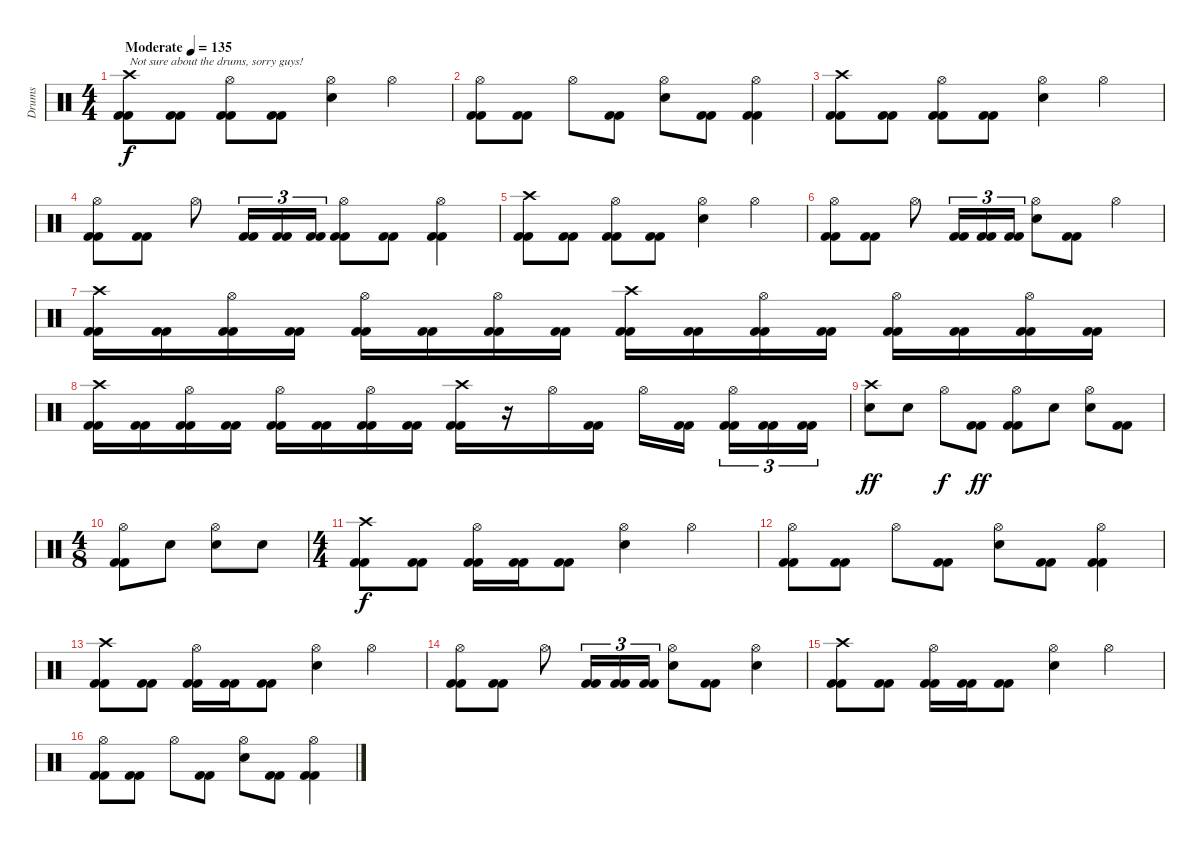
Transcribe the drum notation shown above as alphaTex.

\track ("Drums" "Drums") {instrument percussion}
\staff {score}
\articulation defaults
\ts (4 4)
\tempo (135 "Moderate")
\clef neutral
\ks c
("Crash high (hit)" "Kick (hit) 2" "Kick (hit) 2").8{txt "Not sure about the drums, sorry guys!" dy f} ("Kick (hit) 2" "Kick (hit) 2").8 ("Hi-Hat (open)" "Kick (hit) 2" "Kick (hit) 2").8 ("Kick (hit) 2" "Kick (hit) 2").8 ("Hi-Hat (open)" "Electric Snare (hit)").4 "Hi-Hat (open)".4 |
("Hi-Hat (open)" "Kick (hit) 2" "Kick (hit) 2").8 ("Kick (hit) 2" "Kick (hit) 2").8 "Hi-Hat (open)".8 ("Kick (hit) 2" "Kick (hit) 2").8 ("Hi-Hat (open)" "Electric Snare (hit)").8 ("Kick (hit) 2" "Kick (hit) 2").8 ("Hi-Hat (open)" "Kick (hit) 2" "Kick (hit) 2").4 |
("Crash high (hit)" "Kick (hit) 2" "Kick (hit) 2").8 ("Kick (hit) 2" "Kick (hit) 2").8 ("Hi-Hat (open)" "Kick (hit) 2" "Kick (hit) 2").8 ("Kick (hit) 2" "Kick (hit) 2").8 ("Hi-Hat (open)" "Electric Snare (hit)").4 "Hi-Hat (open)".4 |
("Hi-Hat (open)" "Kick (hit) 2" "Kick (hit) 2").8 ("Kick (hit) 2" "Kick (hit) 2").8 "Hi-Hat (open)".8 ("Kick (hit) 2" "Kick (hit) 2").16{tu (3 2)} ("Kick (hit) 2" "Kick (hit) 2").16{tu (3 2)} ("Kick (hit) 2" "Kick (hit) 2").16{tu (3 2)} ("Hi-Hat (open)" "Kick (hit) 2" "Kick (hit) 2").8 ("Kick (hit) 2" "Kick (hit) 2").8 ("Hi-Hat (open)" "Kick (hit) 2" "Kick (hit) 2").4 |
("Crash high (hit)" "Kick (hit) 2" "Kick (hit) 2").8 ("Kick (hit) 2" "Kick (hit) 2").8 ("Hi-Hat (open)" "Kick (hit) 2" "Kick (hit) 2").8 ("Kick (hit) 2" "Kick (hit) 2").8 ("Hi-Hat (open)" "Electric Snare (hit)").4 "Hi-Hat (open)".4 |
("Hi-Hat (open)" "Kick (hit) 2" "Kick (hit) 2").8 ("Kick (hit) 2" "Kick (hit) 2").8 "Hi-Hat (open)".8 ("Kick (hit) 2" "Kick (hit) 2").16{tu (3 2)} ("Kick (hit) 2" "Kick (hit) 2").16{tu (3 2)} ("Kick (hit) 2" "Kick (hit) 2").16{tu (3 2)} ("Hi-Hat (open)" "Electric Snare (hit)").8 ("Kick (hit) 2" "Kick (hit) 2").8 "Hi-Hat (open)".4 |
("Crash high (hit)" "Kick (hit) 2" "Kick (hit) 2").16 ("Kick (hit) 2" "Kick (hit) 2").16 ("Hi-Hat (open)" "Kick (hit) 2" "Kick (hit) 2").16 ("Kick (hit) 2" "Kick (hit) 2").16 ("Hi-Hat (open)" "Kick (hit) 2" "Kick (hit) 2").16 ("Kick (hit) 2" "Kick (hit) 2").16 ("Hi-Hat (open)" "Kick (hit) 2" "Kick (hit) 2").16 ("Kick (hit) 2" "Kick (hit) 2").16 ("Crash high (hit)" "Kick (hit) 2" "Kick (hit) 2").16 ("Kick (hit) 2" "Kick (hit) 2").16 ("Hi-Hat (open)" "Kick (hit) 2" "Kick (hit) 2").16 ("Kick (hit) 2" "Kick (hit) 2").16 ("Hi-Hat (open)" "Kick (hit) 2" "Kick (hit) 2").16 ("Kick (hit) 2" "Kick (hit) 2").16 ("Hi-Hat (open)" "Kick (hit) 2" "Kick (hit) 2").16 ("Kick (hit) 2" "Kick (hit) 2").16 |
("Crash high (hit)" "Kick (hit) 2" "Kick (hit) 2").16 ("Kick (hit) 2" "Kick (hit) 2").16 ("Hi-Hat (open)" "Kick (hit) 2" "Kick (hit) 2").16 ("Kick (hit) 2" "Kick (hit) 2").16 ("Hi-Hat (open)" "Kick (hit) 2" "Kick (hit) 2").16 ("Kick (hit) 2" "Kick (hit) 2").16 ("Hi-Hat (open)" "Kick (hit) 2" "Kick (hit) 2").16 ("Kick (hit) 2" "Kick (hit) 2").16 ("Crash high (hit)" "Kick (hit) 2" "Kick (hit) 2").16 r.16 "Hi-Hat (open)".16 ("Kick (hit) 2" "Kick (hit) 2").16 "Hi-Hat (open)".16 ("Kick (hit) 2" "Kick (hit) 2").16{beam splitsecondary} ("Hi-Hat (open)" "Kick (hit) 2" "Kick (hit) 2").16{tu (3 2)} ("Kick (hit) 2" "Kick (hit) 2").16{tu (3 2)} ("Kick (hit) 2" "Kick (hit) 2").16{tu (3 2)} |
("Crash high (hit)" "Electric Snare (hit)").8{dy ff} "Electric Snare (hit)".8 "Hi-Hat (open)".8{dy f} ("Kick (hit) 2" "Kick (hit) 2").8{dy ff} ("Hi-Hat (open)" "Kick (hit) 2" "Kick (hit) 2").8 "Electric Snare (hit)".8 ("Hi-Hat (open)" "Electric Snare (hit)").8 ("Kick (hit) 2" "Kick (hit) 2").8 |
\ts (4 8)
("Hi-Hat (open)" "Kick (hit) 2" "Kick (hit) 2").8 "Electric Snare (hit)".8 ("Hi-Hat (open)" "Electric Snare (hit)").8 "Electric Snare (hit)".8 |
\ts (4 4)
("Crash high (hit)" "Kick (hit) 2" "Kick (hit) 2").8{dy f} ("Kick (hit) 2" "Kick (hit) 2").8 ("Hi-Hat (open)" "Kick (hit) 2" "Kick (hit) 2").16 ("Kick (hit) 2" "Kick (hit) 2").16 ("Kick (hit) 2" "Kick (hit) 2").8 ("Hi-Hat (open)" "Electric Snare (hit)").4 "Hi-Hat (open)".4 |
("Hi-Hat (open)" "Kick (hit) 2" "Kick (hit) 2").8 ("Kick (hit) 2" "Kick (hit) 2").8 "Hi-Hat (open)".8 ("Kick (hit) 2" "Kick (hit) 2").8 ("Hi-Hat (open)" "Electric Snare (hit)").8 ("Kick (hit) 2" "Kick (hit) 2").8 ("Hi-Hat (open)" "Kick (hit) 2" "Kick (hit) 2").4 |
("Crash high (hit)" "Kick (hit) 2" "Kick (hit) 2").8 ("Kick (hit) 2" "Kick (hit) 2").8 ("Hi-Hat (open)" "Kick (hit) 2" "Kick (hit) 2").16 ("Kick (hit) 2" "Kick (hit) 2").16 ("Kick (hit) 2" "Kick (hit) 2").8 ("Hi-Hat (open)" "Electric Snare (hit)").4 "Hi-Hat (open)".4 |
("Hi-Hat (open)" "Kick (hit) 2" "Kick (hit) 2").8 ("Kick (hit) 2" "Kick (hit) 2").8 "Hi-Hat (open)".8 ("Kick (hit) 2" "Kick (hit) 2").16{tu (3 2)} ("Kick (hit) 2" "Kick (hit) 2").16{tu (3 2)} ("Kick (hit) 2" "Kick (hit) 2").16{tu (3 2)} ("Hi-Hat (open)" "Electric Snare (hit)").8 ("Kick (hit) 2" "Kick (hit) 2").8 ("Hi-Hat (open)" "Electric Snare (hit)").4 |
("Crash high (hit)" "Kick (hit) 2" "Kick (hit) 2").8 ("Kick (hit) 2" "Kick (hit) 2").8 ("Hi-Hat (open)" "Kick (hit) 2" "Kick (hit) 2").16 ("Kick (hit) 2" "Kick (hit) 2").16 ("Kick (hit) 2" "Kick (hit) 2").8 ("Hi-Hat (open)" "Electric Snare (hit)").4 "Hi-Hat (open)".4 |
("Hi-Hat (open)" "Kick (hit) 2" "Kick (hit) 2").8 ("Kick (hit) 2" "Kick (hit) 2").8 "Hi-Hat (open)".8 ("Kick (hit) 2" "Kick (hit) 2").8 ("Hi-Hat (open)" "Electric Snare (hit)").8 ("Kick (hit) 2" "Kick (hit) 2").8 ("Hi-Hat (open)" "Kick (hit) 2" "Kick (hit) 2").4
